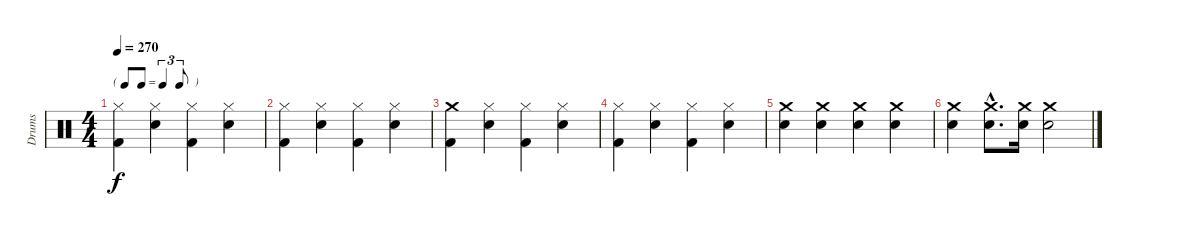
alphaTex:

\track ("Drums" "Drums") {instrument percussion}
\staff {score}
\articulation defaults
\ts (4 4)
\tf triplet8th
\tempo 270
\clef neutral
\ks c
("Hi-Hat (closed)" "Kick (hit) 2").4{dy f} ("Snare (hit) 2" "Hi-Hat (closed)").4 ("Hi-Hat (closed)" "Kick (hit) 2").4 ("Snare (hit) 2" "Hi-Hat (closed)").4 |
("Hi-Hat (closed)" "Kick (hit) 2").4 ("Snare (hit) 2" "Hi-Hat (closed)").4 ("Hi-Hat (closed)" "Kick (hit) 2").4 ("Snare (hit) 2" "Hi-Hat (closed)").4 |
("Crash medium (hit)" "Kick (hit) 2").4 ("Snare (hit) 2" "Hi-Hat (closed)").4 ("Hi-Hat (closed)" "Kick (hit) 2").4 ("Snare (hit) 2" "Hi-Hat (closed)").4 |
("Hi-Hat (closed)" "Kick (hit) 2").4 ("Snare (hit) 2" "Hi-Hat (closed)").4 ("Hi-Hat (closed)" "Kick (hit) 2").4 ("Snare (hit) 2" "Hi-Hat (closed)").4 |
("Snare (hit) 2" "Crash medium (hit)").4 ("Snare (hit) 2" "Crash medium (hit)").4 ("Snare (hit) 2" "Crash medium (hit)").4 ("Snare (hit) 2" "Crash medium (hit)").4 |
("Snare (hit) 2" "Crash medium (hit)").4 ("Snare (hit) 2"{hac} "Crash medium (hit)"{hac}).8{d} ("Snare (hit) 2" "Crash medium (hit)").16 ("Snare (hit) 2" "Crash medium (hit)").2
